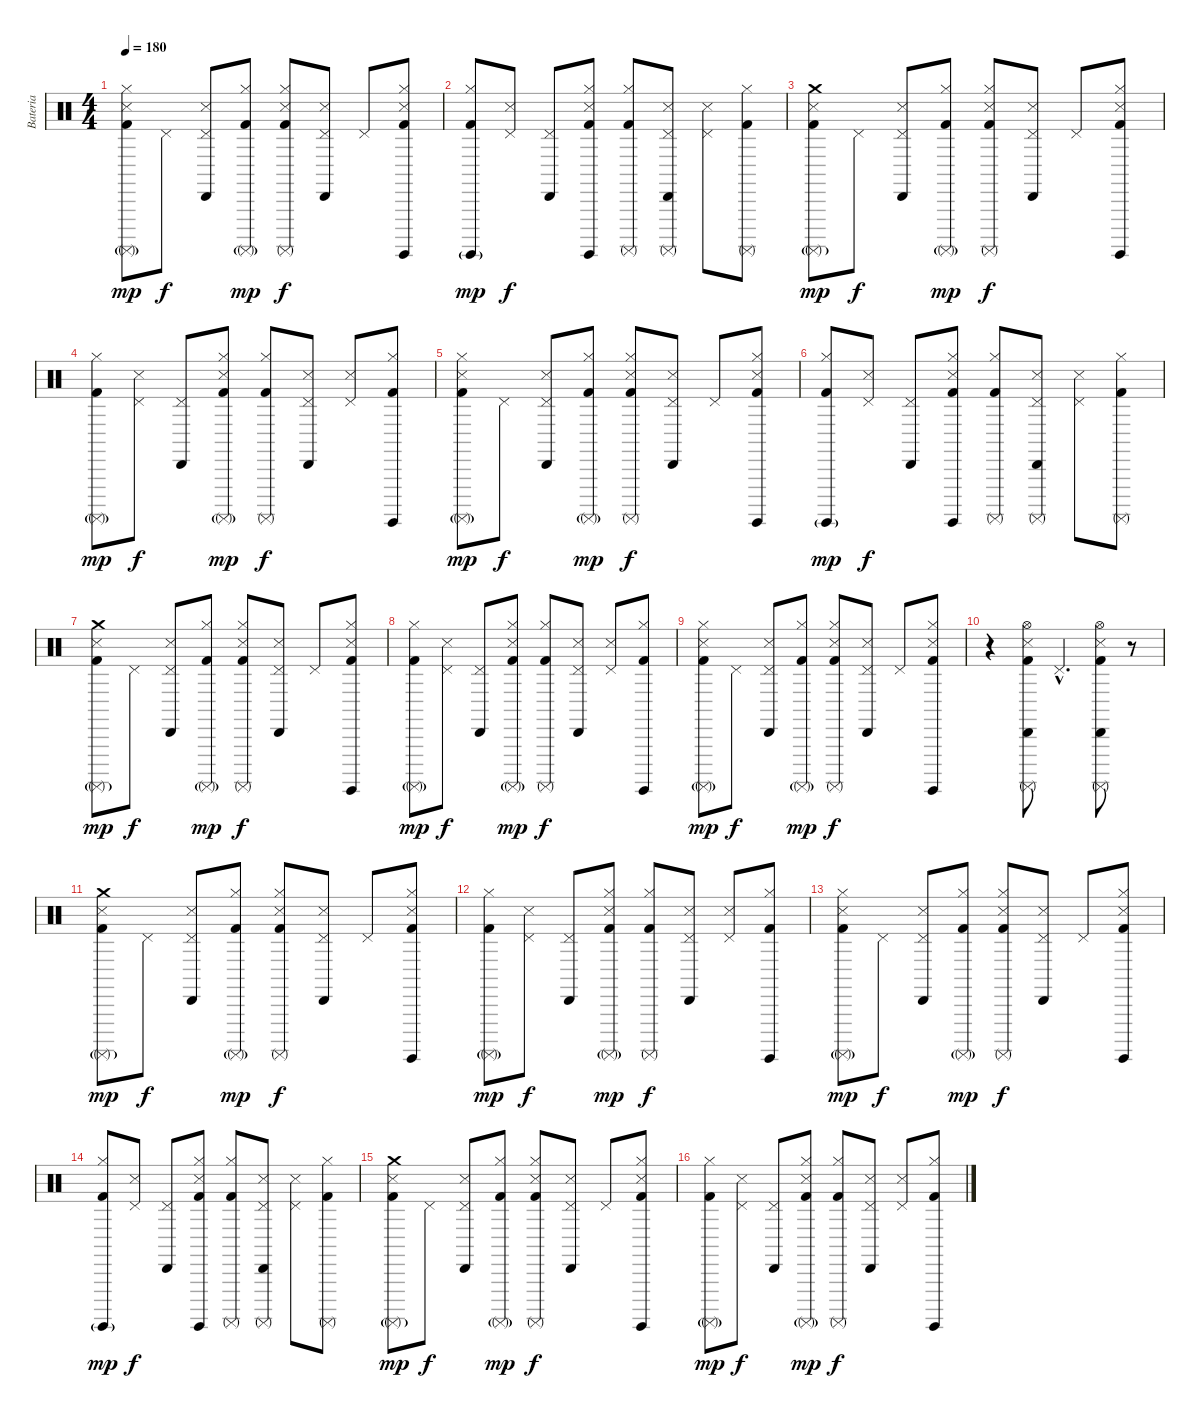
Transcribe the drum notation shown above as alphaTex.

\track ("Bateria" "Bateria") {instrument percussion}
\staff {score}
\articulation defaults
\ts (4 4)
\tempo 180
\clef neutral
\ks c
("Hi-Hat (closed)" "Snare (side stick) 3" "Surdo (mute)"{g} "Kick (hit) 2").8{dy mp} "Pedal Hi-Hat (hit)".8{dy f} ("Pedal Hi-Hat (hit)" "Cabasa (hit)" "Snare (side stick) 3").8 ("Hi-Hat (closed)" "Surdo (mute)"{g} "Kick (hit) 2").8{dy mp} ("Hi-Hat (closed)" "Snare (side stick) 3" "Surdo (mute)" "Kick (hit) 2").8{dy f} ("Pedal Hi-Hat (hit)" "Cabasa (hit)" "Snare (side stick) 3").8 "Pedal Hi-Hat (hit)".8 ("Hi-Hat (closed)" "Snare (side stick) 3" "Surdo (hit)" "Kick (hit) 2").8 |
("Hi-Hat (closed)" "Surdo (hit)"{g} "Kick (hit) 2").8{dy mp} ("Pedal Hi-Hat (hit)" "Snare (side stick) 3").8{dy f} ("Pedal Hi-Hat (hit)" "Cabasa (hit)").8 ("Hi-Hat (closed)" "Snare (side stick) 3" "Surdo (hit)" "Kick (hit) 2").8 ("Hi-Hat (closed)" "Surdo (mute)" "Kick (hit) 2").8 ("Pedal Hi-Hat (hit)" "Cabasa (hit)" "Snare (side stick) 3" "Surdo (mute)").8 ("Pedal Hi-Hat (hit)" "Snare (side stick) 3").8 ("Hi-Hat (closed)" "Surdo (mute)" "Kick (hit) 2").8 |
("Crash medium (hit)" "Snare (side stick) 3" "Surdo (mute)"{g} "Kick (hit) 2").8{dy mp} "Pedal Hi-Hat (hit)".8{dy f} ("Pedal Hi-Hat (hit)" "Cabasa (hit)" "Snare (side stick) 3").8 ("Hi-Hat (closed)" "Surdo (mute)"{g} "Kick (hit) 2").8{dy mp} ("Hi-Hat (closed)" "Snare (side stick) 3" "Surdo (mute)" "Kick (hit) 2").8{dy f} ("Pedal Hi-Hat (hit)" "Cabasa (hit)" "Snare (side stick) 3").8 "Pedal Hi-Hat (hit)".8 ("Hi-Hat (closed)" "Snare (side stick) 3" "Surdo (hit)" "Kick (hit) 2").8 |
("Hi-Hat (closed)" "Surdo (mute)"{g} "Kick (hit) 2").8{dy mp} ("Pedal Hi-Hat (hit)" "Snare (side stick) 3").8{dy f} ("Pedal Hi-Hat (hit)" "Cabasa (hit)").8 ("Hi-Hat (closed)" "Snare (side stick) 3" "Surdo (mute)"{g} "Kick (hit) 2").8{dy mp} ("Hi-Hat (closed)" "Surdo (mute)" "Kick (hit) 2").8{dy f} ("Pedal Hi-Hat (hit)" "Cabasa (hit)" "Snare (side stick) 3").8 ("Pedal Hi-Hat (hit)" "Snare (side stick) 3").8 ("Hi-Hat (closed)" "Surdo (hit)" "Kick (hit) 2").8 |
("Hi-Hat (closed)" "Snare (side stick) 3" "Surdo (mute)"{g} "Kick (hit) 2").8{dy mp} "Pedal Hi-Hat (hit)".8{dy f} ("Pedal Hi-Hat (hit)" "Cabasa (hit)" "Snare (side stick) 3").8 ("Hi-Hat (closed)" "Surdo (mute)"{g} "Kick (hit) 2").8{dy mp} ("Hi-Hat (closed)" "Snare (side stick) 3" "Surdo (mute)" "Kick (hit) 2").8{dy f} ("Pedal Hi-Hat (hit)" "Cabasa (hit)" "Snare (side stick) 3").8 "Pedal Hi-Hat (hit)".8 ("Hi-Hat (closed)" "Snare (side stick) 3" "Surdo (hit)" "Kick (hit) 2").8 |
("Hi-Hat (closed)" "Surdo (hit)"{g} "Kick (hit) 2").8{dy mp} ("Pedal Hi-Hat (hit)" "Snare (side stick) 3").8{dy f} ("Pedal Hi-Hat (hit)" "Cabasa (hit)").8 ("Hi-Hat (closed)" "Snare (side stick) 3" "Surdo (hit)" "Kick (hit) 2").8 ("Hi-Hat (closed)" "Surdo (mute)" "Kick (hit) 2").8 ("Pedal Hi-Hat (hit)" "Cabasa (hit)" "Snare (side stick) 3" "Surdo (mute)").8 ("Pedal Hi-Hat (hit)" "Snare (side stick) 3").8 ("Hi-Hat (closed)" "Surdo (mute)" "Kick (hit) 2").8 |
("Crash medium (hit)" "Snare (side stick) 3" "Surdo (mute)"{g} "Kick (hit) 2").8{dy mp} "Pedal Hi-Hat (hit)".8{dy f} ("Pedal Hi-Hat (hit)" "Cabasa (hit)" "Snare (side stick) 3").8 ("Hi-Hat (closed)" "Surdo (mute)"{g} "Kick (hit) 2").8{dy mp} ("Hi-Hat (closed)" "Snare (side stick) 3" "Surdo (mute)" "Kick (hit) 2").8{dy f} ("Pedal Hi-Hat (hit)" "Cabasa (hit)" "Snare (side stick) 3").8 "Pedal Hi-Hat (hit)".8 ("Hi-Hat (closed)" "Snare (side stick) 3" "Surdo (hit)" "Kick (hit) 2").8 |
("Hi-Hat (closed)" "Surdo (mute)"{g} "Kick (hit) 2").8{dy mp} ("Pedal Hi-Hat (hit)" "Snare (side stick) 3").8{dy f} ("Pedal Hi-Hat (hit)" "Cabasa (hit)").8 ("Hi-Hat (closed)" "Snare (side stick) 3" "Surdo (mute)"{g} "Kick (hit) 2").8{dy mp} ("Hi-Hat (closed)" "Surdo (mute)" "Kick (hit) 2").8{dy f} ("Pedal Hi-Hat (hit)" "Cabasa (hit)" "Snare (side stick) 3").8 ("Pedal Hi-Hat (hit)" "Snare (side stick) 3").8 ("Hi-Hat (closed)" "Surdo (hit)" "Kick (hit) 2").8 |
("Hi-Hat (closed)" "Snare (side stick) 3" "Surdo (mute)"{g} "Kick (hit) 2").8{dy mp} "Pedal Hi-Hat (hit)".8{dy f} ("Pedal Hi-Hat (hit)" "Cabasa (hit)" "Snare (side stick) 3").8 ("Hi-Hat (closed)" "Surdo (mute)"{g} "Kick (hit) 2").8{dy mp} ("Hi-Hat (closed)" "Snare (side stick) 3" "Surdo (mute)" "Kick (hit) 2").8{dy f} ("Pedal Hi-Hat (hit)" "Cabasa (hit)" "Snare (side stick) 3").8 "Pedal Hi-Hat (hit)".8 ("Hi-Hat (closed)" "Snare (side stick) 3" "Surdo (hit)" "Kick (hit) 2").8 |
r.4 ("Hi-Hat (open)" "Cabasa (hit)" "Snare (side stick) 3" "Surdo (mute)" "Kick (hit) 2").8 "Pedal Hi-Hat (hit)"{hac}.4{d} ("Hi-Hat (open)" "Cabasa (hit)" "Snare (side stick) 3" "Surdo (mute)" "Kick (hit) 2").8 r.8 |
("Crash medium (hit)" "Snare (side stick) 3" "Surdo (mute)"{g} "Kick (hit) 2").8{dy mp} "Pedal Hi-Hat (hit)".8{dy f} ("Pedal Hi-Hat (hit)" "Cabasa (hit)" "Snare (side stick) 3").8 ("Hi-Hat (closed)" "Surdo (mute)"{g} "Kick (hit) 2").8{dy mp} ("Hi-Hat (closed)" "Snare (side stick) 3" "Surdo (mute)" "Kick (hit) 2").8{dy f} ("Pedal Hi-Hat (hit)" "Cabasa (hit)" "Snare (side stick) 3").8 "Pedal Hi-Hat (hit)".8 ("Hi-Hat (closed)" "Snare (side stick) 3" "Surdo (hit)" "Kick (hit) 2").8 |
("Hi-Hat (closed)" "Surdo (mute)"{g} "Kick (hit) 2").8{dy mp} ("Pedal Hi-Hat (hit)" "Snare (side stick) 3").8{dy f} ("Pedal Hi-Hat (hit)" "Cabasa (hit)").8 ("Hi-Hat (closed)" "Snare (side stick) 3" "Surdo (mute)"{g} "Kick (hit) 2").8{dy mp} ("Hi-Hat (closed)" "Surdo (mute)" "Kick (hit) 2").8{dy f} ("Pedal Hi-Hat (hit)" "Cabasa (hit)" "Snare (side stick) 3").8 ("Pedal Hi-Hat (hit)" "Snare (side stick) 3").8 ("Hi-Hat (closed)" "Surdo (hit)" "Kick (hit) 2").8 |
("Hi-Hat (closed)" "Snare (side stick) 3" "Surdo (mute)"{g} "Kick (hit) 2").8{dy mp} "Pedal Hi-Hat (hit)".8{dy f} ("Pedal Hi-Hat (hit)" "Cabasa (hit)" "Snare (side stick) 3").8 ("Hi-Hat (closed)" "Surdo (mute)"{g} "Kick (hit) 2").8{dy mp} ("Hi-Hat (closed)" "Snare (side stick) 3" "Surdo (mute)" "Kick (hit) 2").8{dy f} ("Pedal Hi-Hat (hit)" "Cabasa (hit)" "Snare (side stick) 3").8 "Pedal Hi-Hat (hit)".8 ("Hi-Hat (closed)" "Snare (side stick) 3" "Surdo (hit)" "Kick (hit) 2").8 |
("Hi-Hat (closed)" "Surdo (hit)"{g} "Kick (hit) 2").8{dy mp} ("Pedal Hi-Hat (hit)" "Snare (side stick) 3").8{dy f} ("Pedal Hi-Hat (hit)" "Cabasa (hit)").8 ("Hi-Hat (closed)" "Snare (side stick) 3" "Surdo (hit)" "Kick (hit) 2").8 ("Hi-Hat (closed)" "Surdo (mute)" "Kick (hit) 2").8 ("Pedal Hi-Hat (hit)" "Cabasa (hit)" "Snare (side stick) 3" "Surdo (mute)").8 ("Pedal Hi-Hat (hit)" "Snare (side stick) 3").8 ("Hi-Hat (closed)" "Surdo (mute)" "Kick (hit) 2").8 |
("Crash medium (hit)" "Snare (side stick) 3" "Surdo (mute)"{g} "Kick (hit) 2").8{dy mp} "Pedal Hi-Hat (hit)".8{dy f} ("Pedal Hi-Hat (hit)" "Cabasa (hit)" "Snare (side stick) 3").8 ("Hi-Hat (closed)" "Surdo (mute)"{g} "Kick (hit) 2").8{dy mp} ("Hi-Hat (closed)" "Snare (side stick) 3" "Surdo (mute)" "Kick (hit) 2").8{dy f} ("Pedal Hi-Hat (hit)" "Cabasa (hit)" "Snare (side stick) 3").8 "Pedal Hi-Hat (hit)".8 ("Hi-Hat (closed)" "Snare (side stick) 3" "Surdo (hit)" "Kick (hit) 2").8 |
("Hi-Hat (closed)" "Surdo (mute)"{g} "Kick (hit) 2").8{dy mp} ("Pedal Hi-Hat (hit)" "Snare (side stick) 3").8{dy f} ("Pedal Hi-Hat (hit)" "Cabasa (hit)").8 ("Hi-Hat (closed)" "Snare (side stick) 3" "Surdo (mute)"{g} "Kick (hit) 2").8{dy mp} ("Hi-Hat (closed)" "Surdo (mute)" "Kick (hit) 2").8{dy f} ("Pedal Hi-Hat (hit)" "Cabasa (hit)" "Snare (side stick) 3").8 ("Pedal Hi-Hat (hit)" "Snare (side stick) 3").8 ("Hi-Hat (closed)" "Surdo (hit)" "Kick (hit) 2").8
